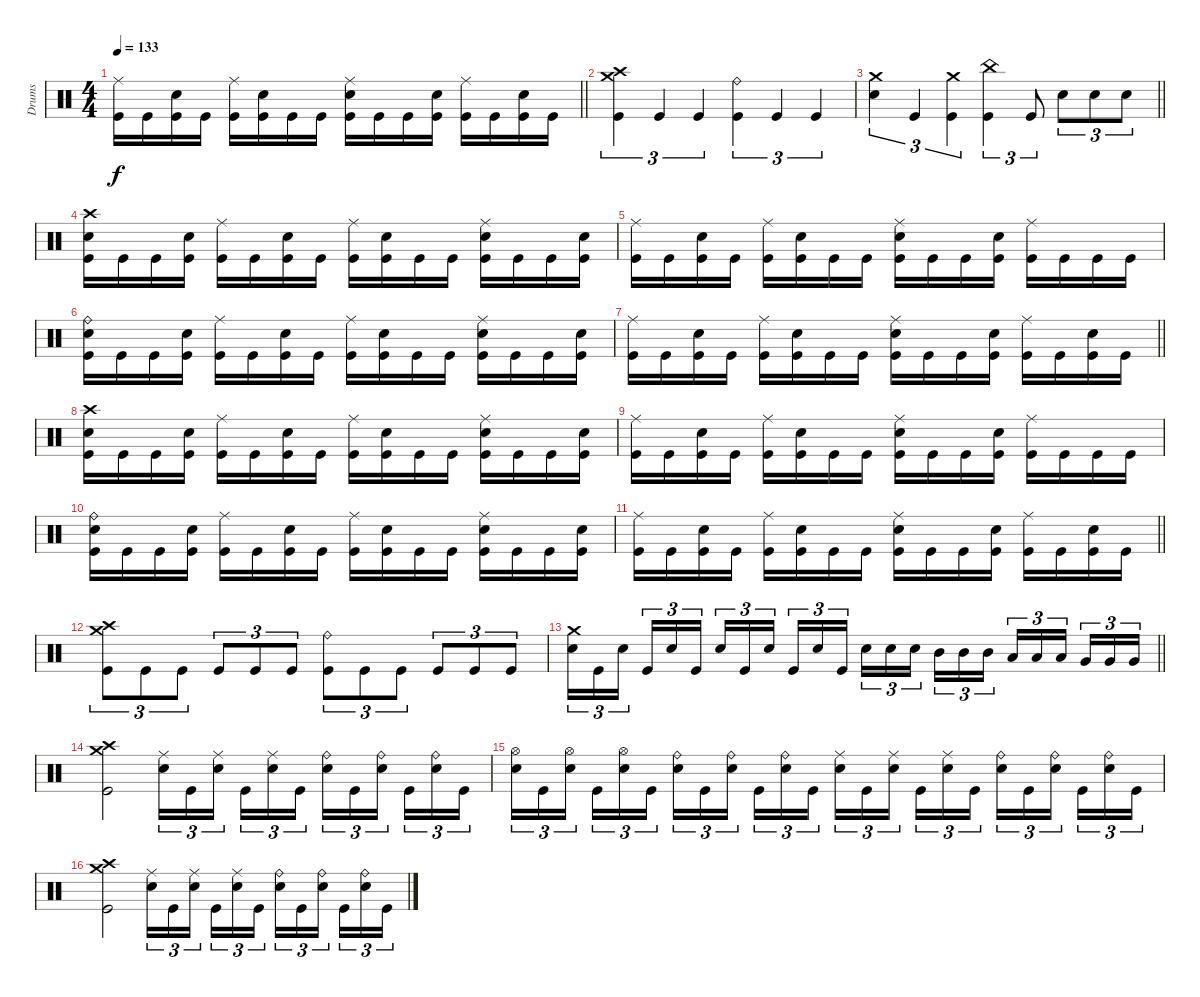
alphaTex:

\track ("Drums" "Drums") {instrument percussion}
\staff
\articulation defaults
\ts (4 4)
\tempo 133
\clef neutral
\barLineRight lightlight
\ks c
("Ride (middle)" "Kick (hit)").16{dy f} "Kick (hit)".16 ("Electric Snare (hit)" "Kick (hit)").16 "Kick (hit)".16 ("Ride (middle)" "Kick (hit)").16 ("Electric Snare (hit)" "Kick (hit)").16 "Kick (hit)".16 "Kick (hit)".16 ("Ride (middle)" "Electric Snare (hit)" "Kick (hit)").16 "Kick (hit)".16 "Kick (hit)".16 ("Electric Snare (hit)" "Kick (hit)").16 ("Ride (middle)" "Kick (hit)").16 "Kick (hit)".16 ("Electric Snare (hit)" "Kick (hit)").16 "Kick (hit)".16 |
("Crash high (hit)" "Crash medium (hit)" "Kick (hit)").4{tu (3 2)} "Kick (hit)".4{tu (3 2)} "Kick (hit)".4{tu (3 2)} ("Ride (bell)" "Kick (hit)").4{tu (3 2)} "Kick (hit)".4{tu (3 2)} "Kick (hit)".4{tu (3 2)} |
\barLineRight lightlight
("Crash medium (hit)" "Electric Snare (hit)").4{tu (3 2)} "Kick (hit)".4{tu (3 2)} ("Crash medium (hit)" "Kick (hit)").4{tu (3 2)} ("China (hit)" "Kick (hit)").4{tu (3 2)} "Kick (hit)".8{tu (3 2)} "Electric Snare (hit)".8{tu (3 2)} "Electric Snare (hit)".8{tu (3 2)} "Electric Snare (hit)".8{tu (3 2)} |
("Crash high (hit)" "Electric Snare (hit)" "Kick (hit)").16 "Kick (hit)".16 "Kick (hit)".16 ("Electric Snare (hit)" "Kick (hit)").16 ("Ride (middle)" "Kick (hit)").16 "Kick (hit)".16 ("Electric Snare (hit)" "Kick (hit)").16 "Kick (hit)".16 ("Ride (middle)" "Kick (hit)").16 ("Electric Snare (hit)" "Kick (hit)").16 "Kick (hit)".16 "Kick (hit)".16 ("Ride (middle)" "Electric Snare (hit)" "Kick (hit)").16 "Kick (hit)".16 "Kick (hit)".16 ("Electric Snare (hit)" "Kick (hit)").16 |
("Ride (middle)" "Kick (hit)").16 "Kick (hit)".16 ("Electric Snare (hit)" "Kick (hit)").16 "Kick (hit)".16 ("Ride (middle)" "Kick (hit)").16 ("Electric Snare (hit)" "Kick (hit)").16 "Kick (hit)".16 "Kick (hit)".16 ("Ride (middle)" "Electric Snare (hit)" "Kick (hit)").16 "Kick (hit)".16 "Kick (hit)".16 ("Electric Snare (hit)" "Kick (hit)").16 ("Ride (middle)" "Kick (hit)").16 "Kick (hit)".16 "Kick (hit)".16 "Kick (hit)".16 |
("Ride (bell)" "Electric Snare (hit)" "Kick (hit)").16 "Kick (hit)".16 "Kick (hit)".16 ("Electric Snare (hit)" "Kick (hit)").16 ("Ride (middle)" "Kick (hit)").16 "Kick (hit)".16 ("Electric Snare (hit)" "Kick (hit)").16 "Kick (hit)".16 ("Ride (middle)" "Kick (hit)").16 ("Electric Snare (hit)" "Kick (hit)").16 "Kick (hit)".16 "Kick (hit)".16 ("Ride (middle)" "Electric Snare (hit)" "Kick (hit)").16 "Kick (hit)".16 "Kick (hit)".16 ("Electric Snare (hit)" "Kick (hit)").16 |
\barLineRight lightlight
("Ride (middle)" "Kick (hit)").16 "Kick (hit)".16 ("Electric Snare (hit)" "Kick (hit)").16 "Kick (hit)".16 ("Ride (middle)" "Kick (hit)").16 ("Electric Snare (hit)" "Kick (hit)").16 "Kick (hit)".16 "Kick (hit)".16 ("Ride (middle)" "Electric Snare (hit)" "Kick (hit)").16 "Kick (hit)".16 "Kick (hit)".16 ("Electric Snare (hit)" "Kick (hit)").16 ("Ride (middle)" "Kick (hit)").16 "Kick (hit)".16 ("Electric Snare (hit)" "Kick (hit)").16 "Kick (hit)".16 |
("Crash high (hit)" "Electric Snare (hit)" "Kick (hit)").16 "Kick (hit)".16 "Kick (hit)".16 ("Electric Snare (hit)" "Kick (hit)").16 ("Ride (middle)" "Kick (hit)").16 "Kick (hit)".16 ("Electric Snare (hit)" "Kick (hit)").16 "Kick (hit)".16 ("Ride (middle)" "Kick (hit)").16 ("Electric Snare (hit)" "Kick (hit)").16 "Kick (hit)".16 "Kick (hit)".16 ("Ride (middle)" "Electric Snare (hit)" "Kick (hit)").16 "Kick (hit)".16 "Kick (hit)".16 ("Electric Snare (hit)" "Kick (hit)").16 |
("Ride (middle)" "Kick (hit)").16 "Kick (hit)".16 ("Electric Snare (hit)" "Kick (hit)").16 "Kick (hit)".16 ("Ride (middle)" "Kick (hit)").16 ("Electric Snare (hit)" "Kick (hit)").16 "Kick (hit)".16 "Kick (hit)".16 ("Ride (middle)" "Electric Snare (hit)" "Kick (hit)").16 "Kick (hit)".16 "Kick (hit)".16 ("Electric Snare (hit)" "Kick (hit)").16 ("Ride (middle)" "Kick (hit)").16 "Kick (hit)".16 "Kick (hit)".16 "Kick (hit)".16 |
("Ride (bell)" "Electric Snare (hit)" "Kick (hit)").16 "Kick (hit)".16 "Kick (hit)".16 ("Electric Snare (hit)" "Kick (hit)").16 ("Ride (middle)" "Kick (hit)").16 "Kick (hit)".16 ("Electric Snare (hit)" "Kick (hit)").16 "Kick (hit)".16 ("Ride (middle)" "Kick (hit)").16 ("Electric Snare (hit)" "Kick (hit)").16 "Kick (hit)".16 "Kick (hit)".16 ("Ride (middle)" "Electric Snare (hit)" "Kick (hit)").16 "Kick (hit)".16 "Kick (hit)".16 ("Electric Snare (hit)" "Kick (hit)").16 |
\barLineRight lightlight
("Ride (middle)" "Kick (hit)").16 "Kick (hit)".16 ("Electric Snare (hit)" "Kick (hit)").16 "Kick (hit)".16 ("Ride (middle)" "Kick (hit)").16 ("Electric Snare (hit)" "Kick (hit)").16 "Kick (hit)".16 "Kick (hit)".16 ("Ride (middle)" "Electric Snare (hit)" "Kick (hit)").16 "Kick (hit)".16 "Kick (hit)".16 ("Electric Snare (hit)" "Kick (hit)").16 ("Ride (middle)" "Kick (hit)").16 "Kick (hit)".16 ("Electric Snare (hit)" "Kick (hit)").16 "Kick (hit)".16 |
("Crash high (hit)" "Crash medium (hit)" "Kick (hit)").8{tu (3 2)} "Kick (hit)".8{tu (3 2)} "Kick (hit)".8{tu (3 2)} "Kick (hit)".8{tu (3 2)} "Kick (hit)".8{tu (3 2)} "Kick (hit)".8{tu (3 2)} ("Ride (bell)" "Kick (hit)").8{tu (3 2)} "Kick (hit)".8{tu (3 2)} "Kick (hit)".8{tu (3 2)} "Kick (hit)".8{tu (3 2)} "Kick (hit)".8{tu (3 2)} "Kick (hit)".8{tu (3 2)} |
\barLineRight lightlight
("Crash medium (hit)" "Electric Snare (hit)").16{tu (3 2)} "Kick (hit)".16{tu (3 2)} "Electric Snare (hit)".16{tu (3 2) beam splitsecondary} "Kick (hit)".16{tu (3 2)} "Electric Snare (hit)".16{tu (3 2)} "Kick (hit)".16{tu (3 2)} "Electric Snare (hit)".16{tu (3 2)} "Kick (hit)".16{tu (3 2)} "Electric Snare (hit)".16{tu (3 2) beam splitsecondary} "Kick (hit)".16{tu (3 2)} "Electric Snare (hit)".16{tu (3 2)} "Kick (hit)".16{tu (3 2)} "Electric Snare (hit)".16{tu (3 2)} "Electric Snare (hit)".16{tu (3 2)} "Electric Snare (hit)".16{tu (3 2) beam splitsecondary} "Mid Tom (hit)".16{tu (3 2)} "Mid Tom (hit)".16{tu (3 2)} "Mid Tom (hit)".16{tu (3 2)} "Low Tom (hit)".16{tu (3 2)} "Low Tom (hit)".16{tu (3 2)} "Low Tom (hit)".16{tu (3 2) beam splitsecondary} "Very Low Tom (hit)".16{tu (3 2)} "Very Low Tom (hit)".16{tu (3 2)} "Very Low Tom (hit)".16{tu (3 2)} |
\section ("" "")
("Crash high (hit)" "Crash medium (hit)" "Kick (hit)").2 ("Ride (middle)" "Electric Snare (hit)").16{tu (3 2)} "Kick (hit)".16{tu (3 2)} ("Ride (middle)" "Electric Snare (hit)").16{tu (3 2) beam splitsecondary} "Kick (hit)".16{tu (3 2)} ("Ride (middle)" "Electric Snare (hit)").16{tu (3 2)} "Kick (hit)".16{tu (3 2)} ("Ride (bell)" "Electric Snare (hit)").16{tu (3 2)} "Kick (hit)".16{tu (3 2)} ("Ride (bell)" "Electric Snare (hit)").16{tu (3 2) beam splitsecondary} "Kick (hit)".16{tu (3 2)} ("Ride (bell)" "Electric Snare (hit)").16{tu (3 2)} "Kick (hit)".16{tu (3 2)} |
("Hi-Hat (open)" "Electric Snare (hit)").16{tu (3 2)} "Kick (hit)".16{tu (3 2)} ("Hi-Hat (open)" "Electric Snare (hit)").16{tu (3 2) beam splitsecondary} "Kick (hit)".16{tu (3 2)} ("Hi-Hat (open)" "Electric Snare (hit)").16{tu (3 2)} "Kick (hit)".16{tu (3 2)} ("Ride (bell)" "Electric Snare (hit)").16{tu (3 2)} "Kick (hit)".16{tu (3 2)} ("Ride (bell)" "Electric Snare (hit)").16{tu (3 2) beam splitsecondary} "Kick (hit)".16{tu (3 2)} ("Ride (bell)" "Electric Snare (hit)").16{tu (3 2)} "Kick (hit)".16{tu (3 2)} ("Ride (middle)" "Electric Snare (hit)").16{tu (3 2)} "Kick (hit)".16{tu (3 2)} ("Ride (middle)" "Electric Snare (hit)").16{tu (3 2) beam splitsecondary} "Kick (hit)".16{tu (3 2)} ("Ride (middle)" "Electric Snare (hit)").16{tu (3 2)} "Kick (hit)".16{tu (3 2)} ("Ride (bell)" "Electric Snare (hit)").16{tu (3 2)} "Kick (hit)".16{tu (3 2)} ("Ride (bell)" "Electric Snare (hit)").16{tu (3 2) beam splitsecondary} "Kick (hit)".16{tu (3 2)} ("Ride (bell)" "Electric Snare (hit)").16{tu (3 2)} "Kick (hit)".16{tu (3 2)} |
("Crash high (hit)" "Crash medium (hit)" "Kick (hit)").2 ("Ride (middle)" "Electric Snare (hit)").16{tu (3 2)} "Kick (hit)".16{tu (3 2)} ("Ride (middle)" "Electric Snare (hit)").16{tu (3 2) beam splitsecondary} "Kick (hit)".16{tu (3 2)} ("Ride (middle)" "Electric Snare (hit)").16{tu (3 2)} "Kick (hit)".16{tu (3 2)} ("Ride (bell)" "Electric Snare (hit)").16{tu (3 2)} "Kick (hit)".16{tu (3 2)} ("Ride (bell)" "Electric Snare (hit)").16{tu (3 2) beam splitsecondary} "Kick (hit)".16{tu (3 2)} ("Ride (bell)" "Electric Snare (hit)").16{tu (3 2)} "Kick (hit)".16{tu (3 2)}
